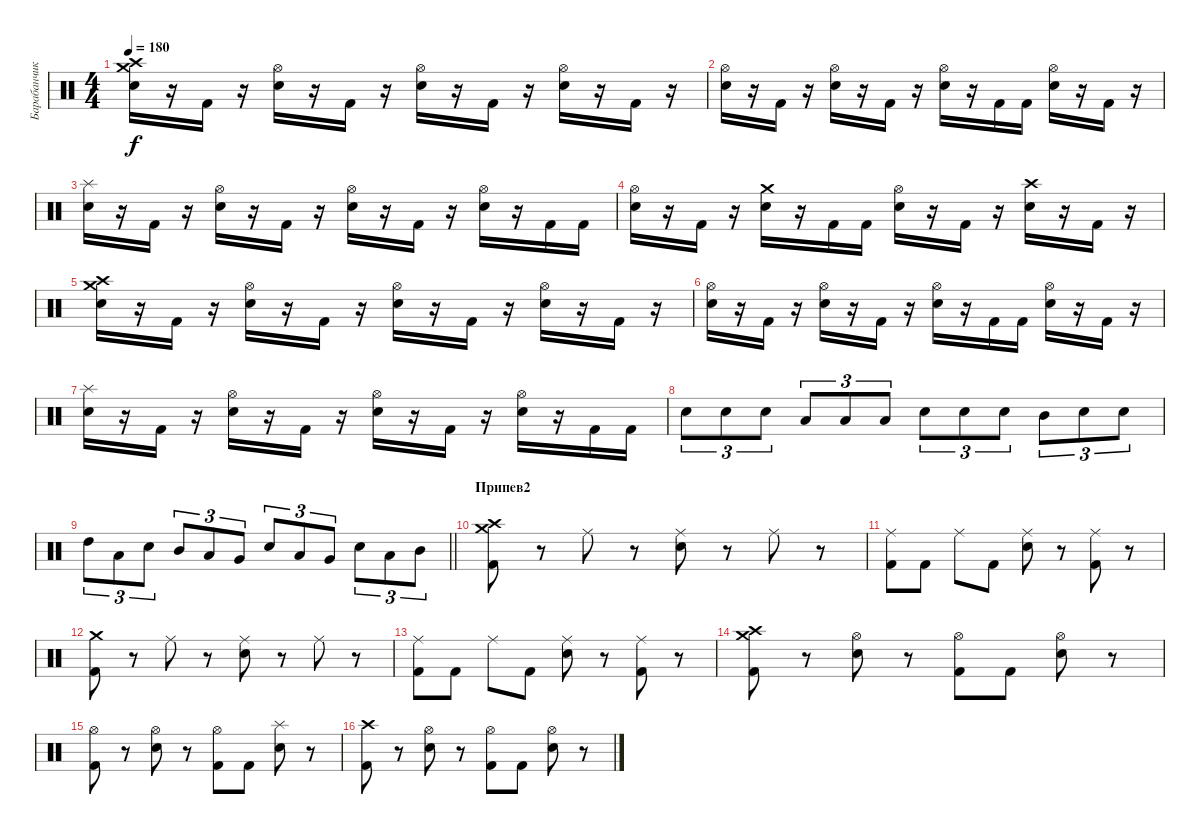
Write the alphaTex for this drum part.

\track ("Барабанчики" "Барабанчик") {instrument percussion}
\staff {score}
\articulation defaults
\ts (4 4)
\tempo 180
\clef neutral
\ks c
("Electric Snare (hit)" "Crash high (hit)" "Crash medium (hit)").16{dy f} r.16 "Kick (hit) 2".16 r.16 ("Electric Snare (hit)" "Hi-Hat (open)").16 r.16 "Kick (hit) 2".16 r.16 ("Electric Snare (hit)" "Hi-Hat (open)").16 r.16 "Kick (hit) 2".16 r.16 ("Electric Snare (hit)" "Hi-Hat (open)").16 r.16 "Kick (hit) 2".16 r.16 |
("Electric Snare (hit)" "Hi-Hat (open)").16 r.16 "Kick (hit) 2".16 r.16 ("Electric Snare (hit)" "Hi-Hat (open)").16 r.16 "Kick (hit) 2".16 r.16 ("Electric Snare (hit)" "Hi-Hat (open)").16 r.16 "Kick (hit) 2".16 "Kick (hit) 2".16 ("Electric Snare (hit)" "Hi-Hat (open)").16 r.16 "Kick (hit) 2".16 r.16 |
("Electric Snare (hit)" "Splash (hit)").16 r.16 "Kick (hit) 2".16 r.16 ("Electric Snare (hit)" "Hi-Hat (open)").16 r.16 "Kick (hit) 2".16 r.16 ("Electric Snare (hit)" "Hi-Hat (open)").16 r.16 "Kick (hit) 2".16 r.16 ("Electric Snare (hit)" "Hi-Hat (open)").16 r.16 "Kick (hit) 2".16 "Kick (hit) 2".16 |
("Electric Snare (hit)" "Hi-Hat (open)").16 r.16 "Kick (hit) 2".16 r.16 ("Electric Snare (hit)" "Crash medium (hit)").16 r.16 "Kick (hit) 2".16 "Kick (hit) 2".16 ("Electric Snare (hit)" "Hi-Hat (open)").16 r.16 "Kick (hit) 2".16 r.16 ("Electric Snare (hit)" "Crash high (hit)").16 r.16 "Kick (hit) 2".16 r.16 |
("Electric Snare (hit)" "Crash high (hit)" "Crash medium (hit)").16 r.16 "Kick (hit) 2".16 r.16 ("Electric Snare (hit)" "Hi-Hat (open)").16 r.16 "Kick (hit) 2".16 r.16 ("Electric Snare (hit)" "Hi-Hat (open)").16 r.16 "Kick (hit) 2".16 r.16 ("Electric Snare (hit)" "Hi-Hat (open)").16 r.16 "Kick (hit) 2".16 r.16 |
("Electric Snare (hit)" "Hi-Hat (open)").16 r.16 "Kick (hit) 2".16 r.16 ("Electric Snare (hit)" "Hi-Hat (open)").16 r.16 "Kick (hit) 2".16 r.16 ("Electric Snare (hit)" "Hi-Hat (open)").16 r.16 "Kick (hit) 2".16 "Kick (hit) 2".16 ("Electric Snare (hit)" "Hi-Hat (open)").16 r.16 "Kick (hit) 2".16 r.16 |
("Electric Snare (hit)" "Splash (hit)").16 r.16 "Kick (hit) 2".16 r.16 ("Electric Snare (hit)" "Hi-Hat (open)").16 r.16 "Kick (hit) 2".16 r.16 ("Electric Snare (hit)" "Hi-Hat (open)").16 r.16 "Kick (hit) 2".16 r.16 ("Electric Snare (hit)" "Hi-Hat (open)").16 r.16 "Kick (hit) 2".16 "Kick (hit) 2".16 |
"Electric Snare (hit)".8{tu (3 2)} "Electric Snare (hit)".8{tu (3 2)} "Electric Snare (hit)".8{tu (3 2)} "Low Tom (hit)".8{tu (3 2)} "Low Tom (hit)".8{tu (3 2)} "Low Tom (hit)".8{tu (3 2)} "Electric Snare (hit)".8{tu (3 2)} "Electric Snare (hit)".8{tu (3 2)} "Electric Snare (hit)".8{tu (3 2)} "Mid Tom (hit)".8{tu (3 2)} "Electric Snare (hit)".8{tu (3 2)} "Electric Snare (hit)".8{tu (3 2)} |
\barLineRight lightlight "High Tom (hit)".8{tu (3 2)} "Low Tom (hit)".8{tu (3 2)} "Electric Snare (hit)".8{tu (3 2)} "Mid Tom (hit)".8{tu (3 2)} "Low Floor Tom (hit)".8{tu (3 2)} "Very Low Tom (hit)".8{tu (3 2)} "Electric Snare (hit)".8{tu (3 2)} "Low Tom (hit)".8{tu (3 2)} "Very Low Tom (hit)".8{tu (3 2)} "Electric Snare (hit)".8{tu (3 2)} "Low Floor Tom (hit)".8{tu (3 2)} "Mid Tom (hit)".8{tu (3 2)}
|
\section ("" "Припев2")
("Kick (hit) 2" "Crash high (hit)" "Crash medium (hit)").8 r.8 "Ride (middle)".8 r.8 ("Electric Snare (hit)" "Ride (middle)").8 r.8 "Ride (middle)".8 r.8 |
("Kick (hit) 2" "Ride (middle)").8 "Kick (hit) 2".8 "Ride (middle)".8 "Kick (hit) 2".8 ("Electric Snare (hit)" "Ride (middle)").8 r.8 ("Kick (hit) 2" "Ride (middle)").8 r.8 |
("Kick (hit) 2" "Crash medium (hit)").8 r.8 "Ride (middle)".8 r.8 ("Electric Snare (hit)" "Ride (middle)").8 r.8 "Ride (middle)".8 r.8 |
("Kick (hit) 2" "Ride (middle)").8 "Kick (hit) 2".8 "Ride (middle)".8 "Kick (hit) 2".8 ("Electric Snare (hit)" "Ride (middle)").8 r.8 ("Kick (hit) 2" "Ride (middle)").8 r.8 |
("Kick (hit) 2" "Crash high (hit)" "Crash medium (hit)").8 r.8 ("Electric Snare (hit)" "Hi-Hat (open)").8 r.8 ("Kick (hit) 2" "Hi-Hat (open)").8 "Kick (hit) 2".8 ("Electric Snare (hit)" "Hi-Hat (open)").8 r.8 |
("Kick (hit) 2" "Hi-Hat (open)").8 r.8 ("Electric Snare (hit)" "Hi-Hat (open)").8 r.8 ("Kick (hit) 2" "Hi-Hat (open)").8 "Kick (hit) 2".8 ("Electric Snare (hit)" "Splash (hit)").8 r.8 |
("Kick (hit) 2" "Crash high (hit)").8 r.8 ("Electric Snare (hit)" "Hi-Hat (open)").8 r.8 ("Kick (hit) 2" "Hi-Hat (open)").8 "Kick (hit) 2".8 ("Electric Snare (hit)" "Hi-Hat (open)").8 r.8
